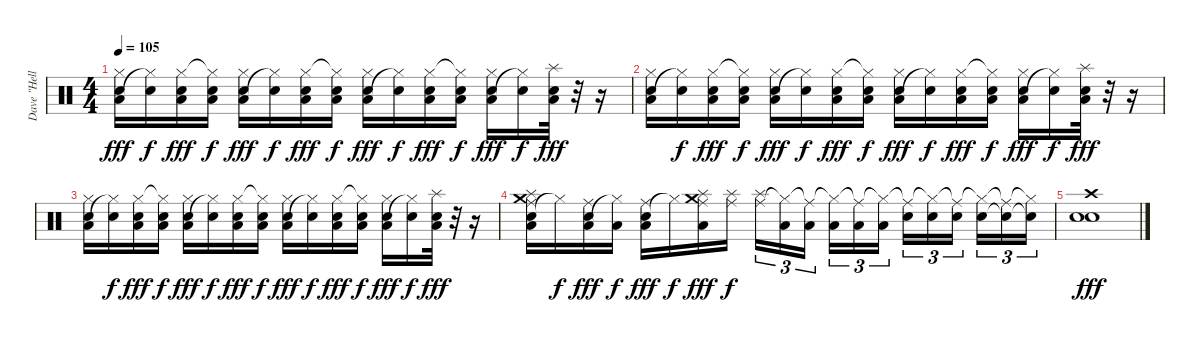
\track ("Dave \"Hellstorm\" Chiarella" "Dave \"Hell") {solo instrument percussion}
\staff {score}
\articulation defaults
\ts (4 4)
\tempo 105
\clef neutral
\ks c
("Electric Snare (hit)" "Low Floor Tom (hit)" "Hi-Hat (closed)").16{dy fff} ("Electric Snare (hit)" "Hi-Hat (closed)"{t}).16{dy f} ("Electric Snare (hit)" "Low Floor Tom (hit)" "Hi-Hat (closed)").16{dy fff} ("Electric Snare (hit)" "Low Floor Tom (hit)" "Hi-Hat (closed)"{t}).16{dy f} ("Electric Snare (hit)" "Low Floor Tom (hit)" "Hi-Hat (closed)").16{dy fff} ("Electric Snare (hit)" "Hi-Hat (closed)"{t}).16{dy f} ("Electric Snare (hit)" "Low Floor Tom (hit)" "Hi-Hat (closed)").16{dy fff} ("Electric Snare (hit)" "Low Floor Tom (hit)" "Hi-Hat (closed)"{t}).16{dy f} ("Electric Snare (hit)" "Low Floor Tom (hit)" "Hi-Hat (closed)").16{dy fff} ("Electric Snare (hit)" "Hi-Hat (closed)"{t}).16{dy f} ("Electric Snare (hit)" "Low Floor Tom (hit)" "Hi-Hat (closed)").16{dy fff} ("Electric Snare (hit)" "Low Floor Tom (hit)" "Hi-Hat (closed)"{t}).16{dy f} ("Electric Snare (hit)" "Low Floor Tom (hit)" "Hi-Hat (closed)").16{dy fff} ("Electric Snare (hit)" "Hi-Hat (closed)"{t}).16{dy f} ("Electric Snare (hit)" "Splash (hit)" "Low Floor Tom (hit)").32{dy fff} r.32 r.16 |
("Electric Snare (hit)" "Low Floor Tom (hit)" "Hi-Hat (closed)").16 ("Electric Snare (hit)" "Hi-Hat (closed)"{t}).16{dy f} ("Electric Snare (hit)" "Low Floor Tom (hit)" "Hi-Hat (closed)").16{dy fff} ("Electric Snare (hit)" "Low Floor Tom (hit)" "Hi-Hat (closed)"{t}).16{dy f} ("Electric Snare (hit)" "Low Floor Tom (hit)" "Hi-Hat (closed)").16{dy fff} ("Electric Snare (hit)" "Hi-Hat (closed)"{t}).16{dy f} ("Electric Snare (hit)" "Low Floor Tom (hit)" "Hi-Hat (closed)").16{dy fff} ("Electric Snare (hit)" "Low Floor Tom (hit)" "Hi-Hat (closed)"{t}).16{dy f} ("Electric Snare (hit)" "Low Floor Tom (hit)" "Hi-Hat (closed)").16{dy fff} ("Electric Snare (hit)" "Hi-Hat (closed)"{t}).16{dy f} ("Electric Snare (hit)" "Low Floor Tom (hit)" "Hi-Hat (closed)").16{dy fff} ("Electric Snare (hit)" "Low Floor Tom (hit)" "Hi-Hat (closed)"{t}).16{dy f} ("Electric Snare (hit)" "Low Floor Tom (hit)" "Hi-Hat (closed)").16{dy fff} ("Electric Snare (hit)" "Hi-Hat (closed)"{t}).16{dy f} ("Electric Snare (hit)" "Splash (hit)" "Low Floor Tom (hit)").32{dy fff} r.32 r.16 |
("Electric Snare (hit)" "Low Floor Tom (hit)" "Hi-Hat (closed)").16 ("Electric Snare (hit)" "Hi-Hat (closed)"{t}).16{dy f} ("Electric Snare (hit)" "Low Floor Tom (hit)" "Hi-Hat (closed)").16{dy fff} ("Electric Snare (hit)" "Low Floor Tom (hit)" "Hi-Hat (closed)"{t}).16{dy f} ("Electric Snare (hit)" "Low Floor Tom (hit)" "Hi-Hat (closed)").16{dy fff} ("Electric Snare (hit)" "Hi-Hat (closed)"{t}).16{dy f} ("Electric Snare (hit)" "Low Floor Tom (hit)" "Hi-Hat (closed)").16{dy fff} ("Electric Snare (hit)" "Low Floor Tom (hit)" "Hi-Hat (closed)"{t}).16{dy f} ("Electric Snare (hit)" "Low Floor Tom (hit)" "Hi-Hat (closed)").16{dy fff} ("Electric Snare (hit)" "Hi-Hat (closed)"{t}).16{dy f} ("Electric Snare (hit)" "Low Floor Tom (hit)" "Hi-Hat (closed)").16{dy fff} ("Electric Snare (hit)" "Low Floor Tom (hit)" "Hi-Hat (closed)"{t}).16{dy f} ("Electric Snare (hit)" "Low Floor Tom (hit)" "Hi-Hat (closed)").16{dy fff} ("Electric Snare (hit)" "Hi-Hat (closed)"{t}).16{dy f} ("Electric Snare (hit)" "Splash (hit)" "Low Floor Tom (hit)").32{dy fff} r.32 r.16 |
("Electric Snare (hit)" "Crash medium (hit)" "Splash (hit)" "Low Floor Tom (hit)" "Ride (middle)").16 "Hi-Hat (closed)"{t}.16{dy f} ("Electric Snare (hit)" "Low Floor Tom (hit)" "Ride (middle)").16{dy fff} ("Low Floor Tom (hit)" "Hi-Hat (closed)"{t}).16{dy f} ("Electric Snare (hit)" "Low Floor Tom (hit)" "Ride (middle)").16{dy fff} "Hi-Hat (closed)"{t}.16{dy f} ("Splash (hit)" "Crash medium (hit)" "Low Floor Tom (hit)" "Ride (middle)").16{dy fff} ("Splash (hit)" "Ride (middle)").16{dy f} ("Splash (hit)" "Ride (middle)").16{tu (3 2)} ("Low Tom (hit)" "Hi-Hat (closed)"{t}).16{tu (3 2)} ("Low Tom (hit)" "Ride (middle)"{t}).16{tu (3 2) beam splitsecondary} ("Low Tom (hit)" "Hi-Hat (closed)"{t}).16{tu (3 2)} ("Low Tom (hit)" "Ride (middle)"{t}).16{tu (3 2)} ("Low Tom (hit)" "Hi-Hat (closed)"{t}).16{tu (3 2)} ("Electric Snare (hit)" "Ride (middle)"{t}).16{tu (3 2)} ("Electric Snare (hit)" "Hi-Hat (closed)"{t}).16{tu (3 2)} ("Electric Snare (hit)" "Ride (middle)"{t}).16{tu (3 2) beam splitsecondary} ("Electric Snare (hit)" "Hi-Hat (closed)"{t}).16{tu (3 2)} ("Electric Snare (hit)"{t} "Ride (middle)"{t}).16{tu (3 2)} ("Electric Snare (hit)"{t} "Hi-Hat (closed)"{t}).16{tu (3 2)} |
("Electric Snare (hit)" "Crash high (hit)" "Electric Snare (hit)").1{dy fff}
